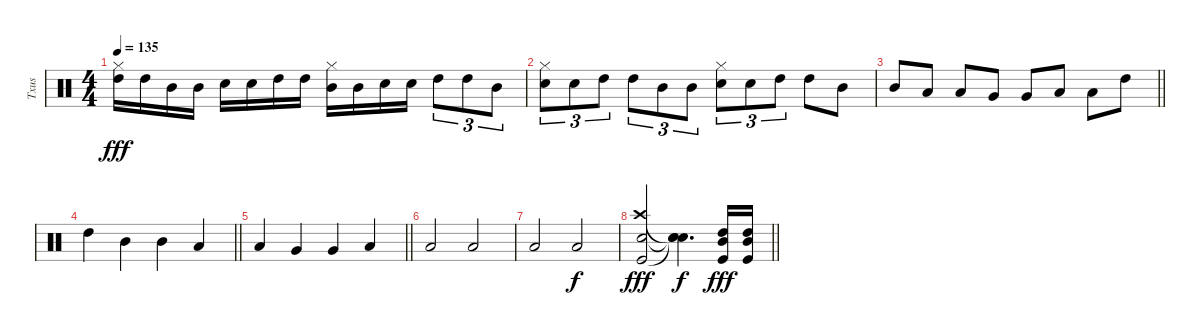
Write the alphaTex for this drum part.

\track ("Txus" "Txus") {instrument percussion}
\staff {score}
\articulation defaults
\ts (4 4)
\tempo 135
\clef neutral
\ks c
("High Tom (hit)" "Hi-Hat (closed)").16{dy fff} "High Tom (hit)".16 "Mid Tom (hit)".16 "Mid Tom (hit)".16 "Electric Snare (hit)".16 "Electric Snare (hit)".16 "High Tom (hit)".16 "High Tom (hit)".16 ("Mid Tom (hit)" "Hi-Hat (closed)").16 "Mid Tom (hit)".16 "Electric Snare (hit)".16 "Electric Snare (hit)".16 "High Tom (hit)".8{tu (3 2)} "High Tom (hit)".8{tu (3 2)} "Mid Tom (hit)".8{tu (3 2)} |
("Electric Snare (hit)" "Hi-Hat (closed)").8{tu (3 2)} "Electric Snare (hit)".8{tu (3 2)} "High Tom (hit)".8{tu (3 2)} "High Tom (hit)".8{tu (3 2)} "Mid Tom (hit)".8{tu (3 2)} "Mid Tom (hit)".8{tu (3 2)} ("Electric Snare (hit)" "Hi-Hat (closed)").8{tu (3 2)} "Electric Snare (hit)".8{tu (3 2)} "High Tom (hit)".8{tu (3 2)} "High Tom (hit)".8 "Mid Tom (hit)".8 |
\barLineRight lightlight "Mid Tom (hit)".8 "Low Tom (hit)".8 "Low Tom (hit)".8 "Very Low Tom (hit)".8 "Very Low Tom (hit)".8 "Low Floor Tom (hit)".8 "Low Floor Tom (hit)".8 "High Tom (hit)".8
|
\barLineRight lightlight "High Tom (hit)".4 "Mid Tom (hit)".4 "Mid Tom (hit)".4 "Low Tom (hit)".4
|
\barLineRight lightlight "Low Tom (hit)".4 "Very Low Tom (hit)".4 "Very Low Tom (hit)".4 "Low Floor Tom (hit)".4
|
"Low Floor Tom (hit)".2 "Low Floor Tom (hit)".2 |
"Low Floor Tom (hit)".2 "Low Floor Tom (hit)".2{dy f} |
\barLineRight lightlight
("Crash high (hit)" "Electric Snare (hit)" "Kick (hit)").2{dy fff} ("Snare (hit)"{t} "Snare (hit)"{t} "Snare (hit)"{t}).4{d dy f} ("Mid Tom (hit)" "High Tom (hit)" "Kick (hit)").16{dy fff} ("Mid Tom (hit)" "High Tom (hit)" "Kick (hit)").16
